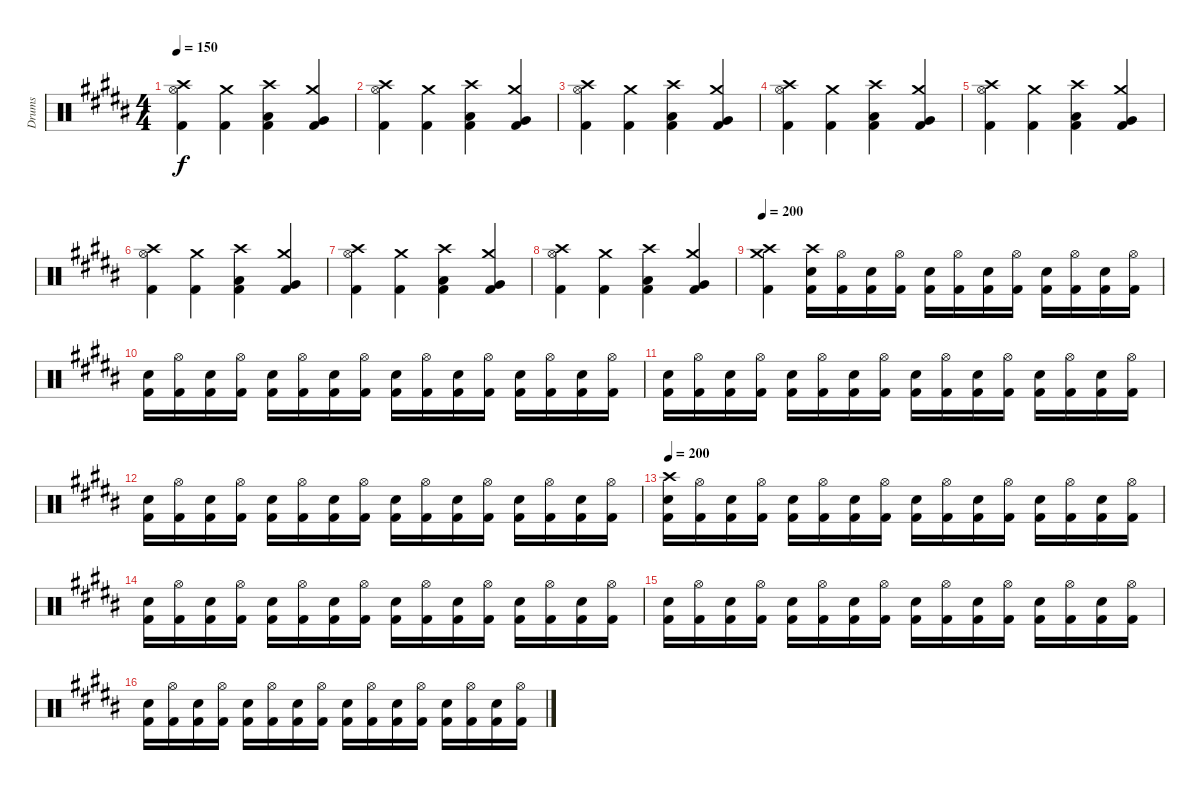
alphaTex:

\track ("Drums" "Drums") {instrument percussion}
\staff {score}
\articulation defaults
\ts (4 4)
\tempo 150
\clef neutral
\ks b
("Crash high (hit)" "Hi-Hat (open)" "Kick (hit) 2").4{dy f} ("Crash medium (hit)" "Kick (hit) 2").4 ("Crash high (hit)" "Low Tom (hit)" "Kick (hit) 2").4 ("Crash medium (hit)" "Very Low Tom (hit)" "Kick (hit) 2").4 |
("Crash high (hit)" "Hi-Hat (open)" "Kick (hit) 2").4 ("Crash medium (hit)" "Kick (hit) 2").4 ("Crash high (hit)" "Low Tom (hit)" "Kick (hit) 2").4 ("Crash medium (hit)" "Very Low Tom (hit)" "Kick (hit) 2").4 |
("Crash high (hit)" "Hi-Hat (open)" "Kick (hit) 2").4 ("Crash medium (hit)" "Kick (hit) 2").4 ("Crash high (hit)" "Low Tom (hit)" "Kick (hit) 2").4 ("Crash medium (hit)" "Very Low Tom (hit)" "Kick (hit) 2").4 |
("Crash high (hit)" "Hi-Hat (open)" "Kick (hit) 2").4 ("Crash medium (hit)" "Kick (hit) 2").4 ("Crash high (hit)" "Low Tom (hit)" "Kick (hit) 2").4 ("Crash medium (hit)" "Very Low Tom (hit)" "Kick (hit) 2").4 |
("Crash high (hit)" "Hi-Hat (open)" "Kick (hit) 2").4 ("Crash medium (hit)" "Kick (hit) 2").4 ("Crash high (hit)" "Low Tom (hit)" "Kick (hit) 2").4 ("Crash medium (hit)" "Very Low Tom (hit)" "Kick (hit) 2").4 |
("Crash high (hit)" "Hi-Hat (open)" "Kick (hit) 2").4 ("Crash medium (hit)" "Kick (hit) 2").4 ("Crash high (hit)" "Low Tom (hit)" "Kick (hit) 2").4 ("Crash medium (hit)" "Very Low Tom (hit)" "Kick (hit) 2").4 |
("Crash high (hit)" "Hi-Hat (open)" "Kick (hit) 2").4 ("Crash medium (hit)" "Kick (hit) 2").4 ("Crash high (hit)" "Low Tom (hit)" "Kick (hit) 2").4 ("Crash medium (hit)" "Very Low Tom (hit)" "Kick (hit) 2").4 |
("Crash high (hit)" "Hi-Hat (open)" "Kick (hit) 2").4 ("Crash medium (hit)" "Kick (hit) 2").4 ("Crash high (hit)" "Low Tom (hit)" "Kick (hit) 2").4 ("Crash medium (hit)" "Very Low Tom (hit)" "Kick (hit) 2").4 |
\tempo 200
("Kick (hit) 2" "Crash medium (hit)" "Crash high (hit)").4 ("Kick (hit) 2" "Crash high (hit)" "Snare (hit) 2").16 ("Kick (hit) 2" "Hi-Hat (open)").16 ("Kick (hit) 2" "Snare (hit) 2").16 ("Kick (hit) 2" "Hi-Hat (open)").16 ("Kick (hit) 2" "Snare (hit) 2").16 ("Kick (hit) 2" "Hi-Hat (open)").16 ("Kick (hit) 2" "Snare (hit) 2").16 ("Kick (hit) 2" "Hi-Hat (open)").16 ("Kick (hit) 2" "Snare (hit) 2").16 ("Kick (hit) 2" "Hi-Hat (open)").16 ("Kick (hit) 2" "Snare (hit) 2").16 ("Kick (hit) 2" "Hi-Hat (open)").16 |
("Snare (hit) 2" "Kick (hit) 2").16 ("Hi-Hat (open)" "Kick (hit) 2").16 ("Snare (hit) 2" "Kick (hit) 2").16 ("Hi-Hat (open)" "Kick (hit) 2").16 ("Snare (hit) 2" "Kick (hit) 2").16 ("Hi-Hat (open)" "Kick (hit) 2").16 ("Snare (hit) 2" "Kick (hit) 2").16 ("Hi-Hat (open)" "Kick (hit) 2").16 ("Snare (hit) 2" "Kick (hit) 2").16 ("Hi-Hat (open)" "Kick (hit) 2").16 ("Snare (hit) 2" "Kick (hit) 2").16 ("Hi-Hat (open)" "Kick (hit) 2").16 ("Snare (hit) 2" "Kick (hit) 2").16 ("Hi-Hat (open)" "Kick (hit) 2").16 ("Snare (hit) 2" "Kick (hit) 2").16 ("Hi-Hat (open)" "Kick (hit) 2").16 |
("Snare (hit) 2" "Kick (hit) 2").16 ("Hi-Hat (open)" "Kick (hit) 2").16 ("Snare (hit) 2" "Kick (hit) 2").16 ("Hi-Hat (open)" "Kick (hit) 2").16 ("Snare (hit) 2" "Kick (hit) 2").16 ("Hi-Hat (open)" "Kick (hit) 2").16 ("Snare (hit) 2" "Kick (hit) 2").16 ("Hi-Hat (open)" "Kick (hit) 2").16 ("Snare (hit) 2" "Kick (hit) 2").16 ("Hi-Hat (open)" "Kick (hit) 2").16 ("Snare (hit) 2" "Kick (hit) 2").16 ("Hi-Hat (open)" "Kick (hit) 2").16 ("Snare (hit) 2" "Kick (hit) 2").16 ("Hi-Hat (open)" "Kick (hit) 2").16 ("Snare (hit) 2" "Kick (hit) 2").16 ("Hi-Hat (open)" "Kick (hit) 2").16 |
("Snare (hit) 2" "Kick (hit) 2").16 ("Hi-Hat (open)" "Kick (hit) 2").16 ("Snare (hit) 2" "Kick (hit) 2").16 ("Hi-Hat (open)" "Kick (hit) 2").16 ("Snare (hit) 2" "Kick (hit) 2").16 ("Hi-Hat (open)" "Kick (hit) 2").16 ("Snare (hit) 2" "Kick (hit) 2").16 ("Hi-Hat (open)" "Kick (hit) 2").16 ("Snare (hit) 2" "Kick (hit) 2").16 ("Hi-Hat (open)" "Kick (hit) 2").16 ("Snare (hit) 2" "Kick (hit) 2").16 ("Hi-Hat (open)" "Kick (hit) 2").16 ("Snare (hit) 2" "Kick (hit) 2").16 ("Hi-Hat (open)" "Kick (hit) 2").16 ("Snare (hit) 2" "Kick (hit) 2").16 ("Hi-Hat (open)" "Kick (hit) 2").16 |
\tempo 200
("Snare (hit) 2" "Crash high (hit)" "Kick (hit) 2").16 ("Hi-Hat (open)" "Kick (hit) 2").16 ("Snare (hit) 2" "Kick (hit) 2").16 ("Hi-Hat (open)" "Kick (hit) 2").16 ("Snare (hit) 2" "Kick (hit) 2").16 ("Hi-Hat (open)" "Kick (hit) 2").16 ("Snare (hit) 2" "Kick (hit) 2").16 ("Hi-Hat (open)" "Kick (hit) 2").16 ("Snare (hit) 2" "Kick (hit) 2").16 ("Hi-Hat (open)" "Kick (hit) 2").16 ("Snare (hit) 2" "Kick (hit) 2").16 ("Hi-Hat (open)" "Kick (hit) 2").16 ("Snare (hit) 2" "Kick (hit) 2").16 ("Hi-Hat (open)" "Kick (hit) 2").16 ("Snare (hit) 2" "Kick (hit) 2").16 ("Hi-Hat (open)" "Kick (hit) 2").16 |
("Snare (hit) 2" "Kick (hit) 2").16 ("Hi-Hat (open)" "Kick (hit) 2").16 ("Snare (hit) 2" "Kick (hit) 2").16 ("Hi-Hat (open)" "Kick (hit) 2").16 ("Snare (hit) 2" "Kick (hit) 2").16 ("Hi-Hat (open)" "Kick (hit) 2").16 ("Snare (hit) 2" "Kick (hit) 2").16 ("Hi-Hat (open)" "Kick (hit) 2").16 ("Snare (hit) 2" "Kick (hit) 2").16 ("Hi-Hat (open)" "Kick (hit) 2").16 ("Snare (hit) 2" "Kick (hit) 2").16 ("Hi-Hat (open)" "Kick (hit) 2").16 ("Snare (hit) 2" "Kick (hit) 2").16 ("Hi-Hat (open)" "Kick (hit) 2").16 ("Snare (hit) 2" "Kick (hit) 2").16 ("Hi-Hat (open)" "Kick (hit) 2").16 |
("Snare (hit) 2" "Kick (hit) 2").16 ("Hi-Hat (open)" "Kick (hit) 2").16 ("Snare (hit) 2" "Kick (hit) 2").16 ("Hi-Hat (open)" "Kick (hit) 2").16 ("Snare (hit) 2" "Kick (hit) 2").16 ("Hi-Hat (open)" "Kick (hit) 2").16 ("Snare (hit) 2" "Kick (hit) 2").16 ("Hi-Hat (open)" "Kick (hit) 2").16 ("Snare (hit) 2" "Kick (hit) 2").16 ("Hi-Hat (open)" "Kick (hit) 2").16 ("Snare (hit) 2" "Kick (hit) 2").16 ("Hi-Hat (open)" "Kick (hit) 2").16 ("Snare (hit) 2" "Kick (hit) 2").16 ("Hi-Hat (open)" "Kick (hit) 2").16 ("Snare (hit) 2" "Kick (hit) 2").16 ("Hi-Hat (open)" "Kick (hit) 2").16 |
("Snare (hit) 2" "Kick (hit) 2").16 ("Hi-Hat (open)" "Kick (hit) 2").16 ("Snare (hit) 2" "Kick (hit) 2").16 ("Hi-Hat (open)" "Kick (hit) 2").16 ("Snare (hit) 2" "Kick (hit) 2").16 ("Hi-Hat (open)" "Kick (hit) 2").16 ("Snare (hit) 2" "Kick (hit) 2").16 ("Hi-Hat (open)" "Kick (hit) 2").16 ("Snare (hit) 2" "Kick (hit) 2").16 ("Hi-Hat (open)" "Kick (hit) 2").16 ("Snare (hit) 2" "Kick (hit) 2").16 ("Hi-Hat (open)" "Kick (hit) 2").16 ("Snare (hit) 2" "Kick (hit) 2").16 ("Hi-Hat (open)" "Kick (hit) 2").16 ("Snare (hit) 2" "Kick (hit) 2").16 ("Hi-Hat (open)" "Kick (hit) 2").16
